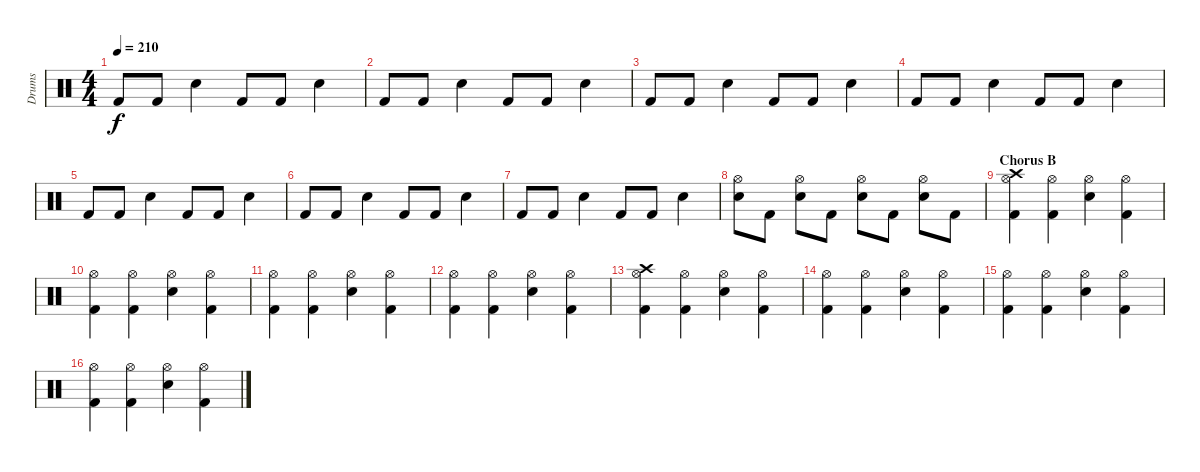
\track ("Drums" "Drums") {instrument percussion}
\staff {score}
\articulation defaults
\ts (4 4)
\tempo 210
\clef neutral
\ks c "Kick (hit) 2".8{dy f} "Kick (hit) 2".8 "Electric Snare (hit)".4 "Kick (hit) 2".8 "Kick (hit) 2".8 "Electric Snare (hit)".4
|
"Kick (hit) 2".8 "Kick (hit) 2".8 "Electric Snare (hit)".4 "Kick (hit) 2".8 "Kick (hit) 2".8 "Electric Snare (hit)".4 |
"Kick (hit) 2".8 "Kick (hit) 2".8 "Electric Snare (hit)".4 "Kick (hit) 2".8 "Kick (hit) 2".8 "Electric Snare (hit)".4 |
"Kick (hit) 2".8 "Kick (hit) 2".8 "Electric Snare (hit)".4 "Kick (hit) 2".8 "Kick (hit) 2".8 "Electric Snare (hit)".4 |
"Kick (hit) 2".8 "Kick (hit) 2".8 "Electric Snare (hit)".4 "Kick (hit) 2".8 "Kick (hit) 2".8 "Electric Snare (hit)".4 |
"Kick (hit) 2".8 "Kick (hit) 2".8 "Electric Snare (hit)".4 "Kick (hit) 2".8 "Kick (hit) 2".8 "Electric Snare (hit)".4 |
"Kick (hit) 2".8 "Kick (hit) 2".8 "Electric Snare (hit)".4 "Kick (hit) 2".8 "Kick (hit) 2".8 "Electric Snare (hit)".4 |
("Hi-Hat (open)" "Electric Snare (hit)").8 "Kick (hit) 2".8 ("Hi-Hat (open)" "Electric Snare (hit)").8 "Kick (hit) 2".8 ("Hi-Hat (open)" "Electric Snare (hit)").8 "Kick (hit) 2".8 ("Hi-Hat (open)" "Electric Snare (hit)").8 "Kick (hit) 2".8 |
\section ("" "Chorus B")
("Crash high (hit)" "Hi-Hat (open)" "Kick (hit) 2").4 ("Hi-Hat (open)" "Kick (hit) 2").4 ("Hi-Hat (open)" "Electric Snare (hit)").4 ("Hi-Hat (open)" "Kick (hit) 2").4 |
("Hi-Hat (open)" "Kick (hit) 2").4 ("Hi-Hat (open)" "Kick (hit) 2").4 ("Hi-Hat (open)" "Electric Snare (hit)").4 ("Hi-Hat (open)" "Kick (hit) 2").4 |
("Hi-Hat (open)" "Kick (hit) 2").4 ("Hi-Hat (open)" "Kick (hit) 2").4 ("Hi-Hat (open)" "Electric Snare (hit)").4 ("Hi-Hat (open)" "Kick (hit) 2").4 |
("Hi-Hat (open)" "Kick (hit) 2").4 ("Hi-Hat (open)" "Kick (hit) 2").4 ("Hi-Hat (open)" "Electric Snare (hit)").4 ("Hi-Hat (open)" "Kick (hit) 2").4 |
("Crash high (hit)" "Hi-Hat (open)" "Kick (hit) 2").4 ("Hi-Hat (open)" "Kick (hit) 2").4 ("Hi-Hat (open)" "Electric Snare (hit)").4 ("Hi-Hat (open)" "Kick (hit) 2").4 |
("Hi-Hat (open)" "Kick (hit) 2").4 ("Hi-Hat (open)" "Kick (hit) 2").4 ("Hi-Hat (open)" "Electric Snare (hit)").4 ("Hi-Hat (open)" "Kick (hit) 2").4 |
("Hi-Hat (open)" "Kick (hit) 2").4 ("Hi-Hat (open)" "Kick (hit) 2").4 ("Hi-Hat (open)" "Electric Snare (hit)").4 ("Hi-Hat (open)" "Kick (hit) 2").4 |
("Hi-Hat (open)" "Kick (hit) 2").4 ("Hi-Hat (open)" "Kick (hit) 2").4 ("Hi-Hat (open)" "Electric Snare (hit)").4 ("Hi-Hat (open)" "Kick (hit) 2").4
